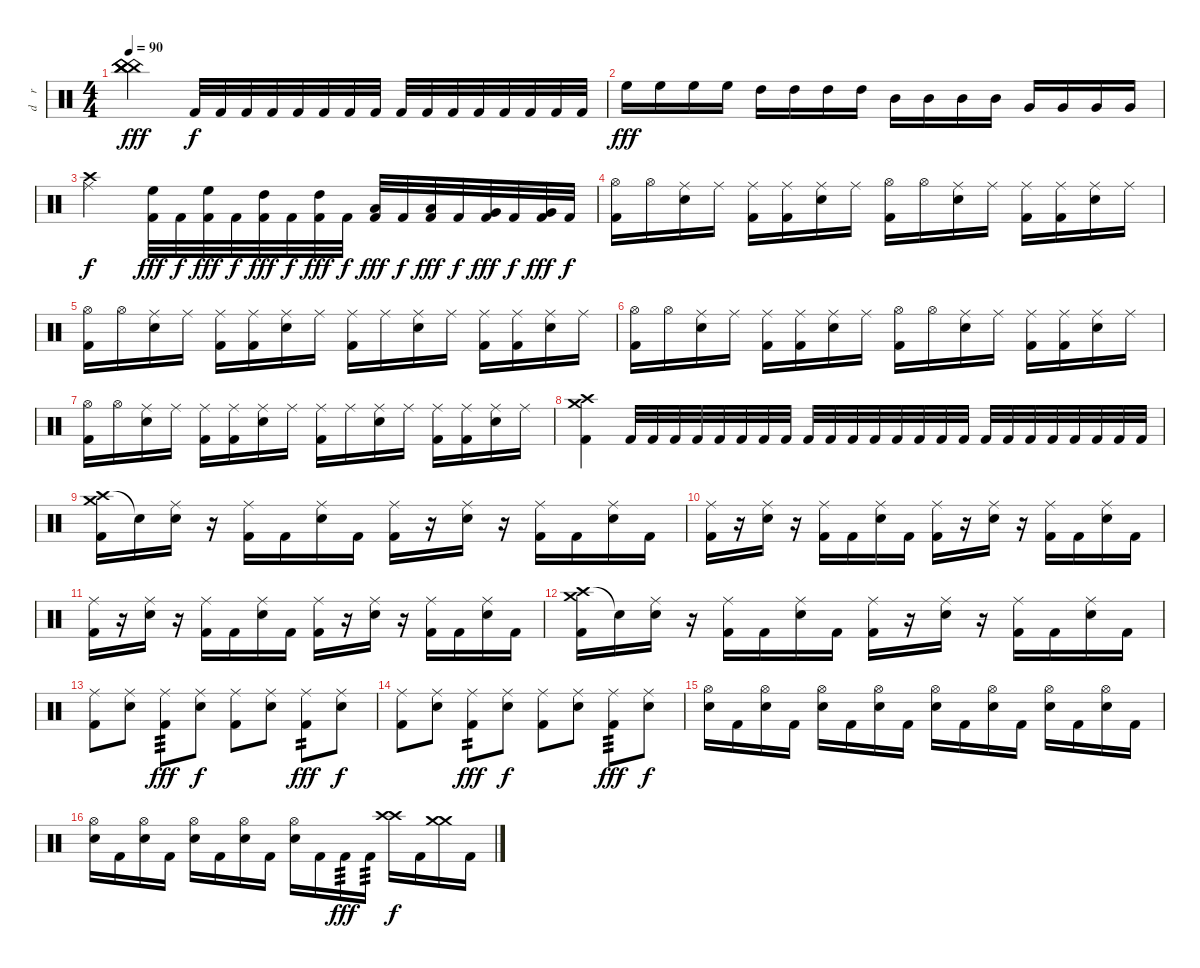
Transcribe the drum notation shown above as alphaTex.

\track ("d    r     u    m    s" "d    r    ") {instrument percussion}
\staff {score}
\articulation defaults
\ts (4 4)
\tempo 90
\clef neutral
\ks c
("China (hit)" "China (hit)" "China (hit)" "China (hit)").2{dy fff} "Kick (hit) 2".32{dy f} "Kick (hit) 2".32 "Kick (hit) 2".32 "Kick (hit) 2".32 "Kick (hit) 2".32 "Kick (hit) 2".32 "Kick (hit) 2".32 "Kick (hit) 2".32 "Kick (hit) 2".32 "Kick (hit) 2".32 "Kick (hit) 2".32 "Kick (hit) 2".32 "Kick (hit) 2".32 "Kick (hit) 2".32 "Kick (hit) 2".32 "Kick (hit) 2".32 |
"High Floor Tom (hit)".16{dy fff} "High Floor Tom (hit)".16 "High Floor Tom (hit)".16 "High Floor Tom (hit)".16 "High Tom (hit)".16 "High Tom (hit)".16 "High Tom (hit)".16 "High Tom (hit)".16 "Mid Tom (hit)".16 "Mid Tom (hit)".16 "Mid Tom (hit)".16 "Mid Tom (hit)".16 "Very Low Tom (hit)".16 "Very Low Tom (hit)".16 "Very Low Tom (hit)".16 "Very Low Tom (hit)".16 |
("Crash high (hit)" "Ride (middle)").2{dy f} ("High Floor Tom (hit)" "Kick (hit) 2").32{dy fff} "Kick (hit) 2".32{dy f} ("High Floor Tom (hit)" "Kick (hit) 2").32{dy fff} "Kick (hit) 2".32{dy f} ("High Tom (hit)" "Kick (hit) 2").32{dy fff} "Kick (hit) 2".32{dy f} ("High Tom (hit)" "Kick (hit) 2").32{dy fff} "Kick (hit) 2".32{dy f} ("Low Tom (hit)" "Kick (hit) 2").32{dy fff} "Kick (hit) 2".32{dy f} ("Low Tom (hit)" "Kick (hit) 2").32{dy fff} "Kick (hit) 2".32{dy f} ("Very Low Tom (hit)" "Kick (hit) 2").32{dy fff} "Kick (hit) 2".32{dy f} ("Very Low Tom (hit)" "Kick (hit) 2").32{dy fff} "Kick (hit) 2".32{dy f} |
("Hi-Hat (open)" "Kick (hit) 2").16 "Hi-Hat (open)".16 ("Ride (middle)" "Electric Snare (hit)").16 "Ride (middle)".16 ("Ride (middle)" "Kick (hit) 2").16 ("Ride (middle)" "Kick (hit) 2").16 ("Ride (middle)" "Electric Snare (hit)").16 "Ride (middle)".16 ("Hi-Hat (open)" "Kick (hit) 2").16 "Hi-Hat (open)".16 ("Ride (middle)" "Electric Snare (hit)").16 "Ride (middle)".16 ("Ride (middle)" "Kick (hit) 2").16 ("Ride (middle)" "Kick (hit) 2").16 ("Ride (middle)" "Electric Snare (hit)").16 "Ride (middle)".16 |
("Hi-Hat (open)" "Kick (hit) 2").16 "Hi-Hat (open)".16 ("Ride (middle)" "Electric Snare (hit)").16 "Ride (middle)".16 ("Ride (middle)" "Kick (hit) 2").16 ("Ride (middle)" "Kick (hit) 2").16 ("Ride (middle)" "Electric Snare (hit)").16 "Ride (middle)".16 ("Ride (middle)" "Kick (hit) 2").16 "Ride (middle)".16 ("Ride (middle)" "Electric Snare (hit)").16 "Ride (middle)".16 ("Ride (middle)" "Kick (hit) 2").16 ("Ride (middle)" "Kick (hit) 2").16 ("Ride (middle)" "Electric Snare (hit)").16 "Ride (middle)".16 |
("Hi-Hat (open)" "Kick (hit) 2").16 "Hi-Hat (open)".16 ("Ride (middle)" "Electric Snare (hit)").16 "Ride (middle)".16 ("Ride (middle)" "Kick (hit) 2").16 ("Ride (middle)" "Kick (hit) 2").16 ("Ride (middle)" "Electric Snare (hit)").16 "Ride (middle)".16 ("Hi-Hat (open)" "Kick (hit) 2").16 "Hi-Hat (open)".16 ("Ride (middle)" "Electric Snare (hit)").16 "Ride (middle)".16 ("Ride (middle)" "Kick (hit) 2").16 ("Ride (middle)" "Kick (hit) 2").16 ("Ride (middle)" "Electric Snare (hit)").16 "Ride (middle)".16 |
("Hi-Hat (open)" "Kick (hit) 2").16 "Hi-Hat (open)".16 ("Ride (middle)" "Electric Snare (hit)").16 "Ride (middle)".16 ("Ride (middle)" "Kick (hit) 2").16 ("Ride (middle)" "Kick (hit) 2").16 ("Ride (middle)" "Electric Snare (hit)").16 "Ride (middle)".16 ("Ride (middle)" "Kick (hit) 2").16 "Ride (middle)".16 ("Ride (middle)" "Electric Snare (hit)").16 "Ride (middle)".16 ("Ride (middle)" "Kick (hit) 2").16 ("Ride (middle)" "Kick (hit) 2").16 ("Ride (middle)" "Electric Snare (hit)").16 "Ride (middle)".16 |
("Crash high (hit)" "Crash medium (hit)" "Kick (hit) 2").4 "Kick (hit) 2".32 "Kick (hit) 2".32 "Kick (hit) 2".32 "Kick (hit) 2".32 "Kick (hit) 2".32 "Kick (hit) 2".32 "Kick (hit) 2".32 "Kick (hit) 2".32 "Kick (hit) 2".32 "Kick (hit) 2".32 "Kick (hit) 2".32 "Kick (hit) 2".32 "Kick (hit) 2".32 "Kick (hit) 2".32 "Kick (hit) 2".32 "Kick (hit) 2".32 "Kick (hit) 2".32 "Kick (hit) 2".32 "Kick (hit) 2".32 "Kick (hit) 2".32 "Kick (hit) 2".32 "Kick (hit) 2".32 "Kick (hit) 2".32 "Kick (hit) 2".32 |
("Crash high (hit)" "Crash medium (hit)" "Kick (hit) 2").16 "Snare (hit)"{t}.16 ("Ride (middle)" "Electric Snare (hit)").16 r.16 ("Ride (middle)" "Kick (hit) 2").16 "Kick (hit) 2".16 ("Ride (middle)" "Electric Snare (hit)").16 "Kick (hit) 2".16 ("Ride (middle)" "Kick (hit) 2").16 r.16 ("Ride (middle)" "Electric Snare (hit)").16 r.16 ("Ride (middle)" "Kick (hit) 2").16 "Kick (hit) 2".16 ("Ride (middle)" "Electric Snare (hit)").16 "Kick (hit) 2".16 |
("Ride (middle)" "Kick (hit) 2").16 r.16 ("Ride (middle)" "Electric Snare (hit)").16 r.16 ("Ride (middle)" "Kick (hit) 2").16 "Kick (hit) 2".16 ("Ride (middle)" "Electric Snare (hit)").16 "Kick (hit) 2".16 ("Ride (middle)" "Kick (hit) 2").16 r.16 ("Ride (middle)" "Electric Snare (hit)").16 r.16 ("Ride (middle)" "Kick (hit) 2").16 "Kick (hit) 2".16 ("Ride (middle)" "Electric Snare (hit)").16 "Kick (hit) 2".16 |
("Ride (middle)" "Kick (hit) 2").16 r.16 ("Ride (middle)" "Electric Snare (hit)").16 r.16 ("Ride (middle)" "Kick (hit) 2").16 "Kick (hit) 2".16 ("Ride (middle)" "Electric Snare (hit)").16 "Kick (hit) 2".16 ("Ride (middle)" "Kick (hit) 2").16 r.16 ("Ride (middle)" "Electric Snare (hit)").16 r.16 ("Ride (middle)" "Kick (hit) 2").16 "Kick (hit) 2".16 ("Ride (middle)" "Electric Snare (hit)").16 "Kick (hit) 2".16 |
("Crash high (hit)" "Crash medium (hit)" "Kick (hit) 2").16 "Snare (hit)"{t}.16 ("Ride (middle)" "Electric Snare (hit)").16 r.16 ("Ride (middle)" "Kick (hit) 2").16 "Kick (hit) 2".16 ("Ride (middle)" "Electric Snare (hit)").16 "Kick (hit) 2".16 ("Ride (middle)" "Kick (hit) 2").16 r.16 ("Ride (middle)" "Electric Snare (hit)").16 r.16 ("Ride (middle)" "Kick (hit) 2").16 "Kick (hit) 2".16 ("Ride (middle)" "Electric Snare (hit)").16 "Kick (hit) 2".16 |
("Ride (middle)" "Kick (hit) 2").8 ("Ride (middle)" "Electric Snare (hit)").8 ("Ride (middle)" "Kick (hit) 2").8{tp 3 dy fff} ("Ride (middle)" "Electric Snare (hit)").8{dy f} ("Ride (middle)" "Kick (hit) 2").8 ("Ride (middle)" "Electric Snare (hit)").8 ("Ride (middle)" "Kick (hit) 2").8{tp 2 dy fff} ("Ride (middle)" "Electric Snare (hit)").8{dy f} |
("Ride (middle)" "Kick (hit) 2").8 ("Ride (middle)" "Electric Snare (hit)").8 ("Ride (middle)" "Kick (hit) 2").8{tp 2 dy fff} ("Ride (middle)" "Electric Snare (hit)").8{dy f} ("Ride (middle)" "Kick (hit) 2").8 ("Ride (middle)" "Electric Snare (hit)").8 ("Ride (middle)" "Kick (hit) 2").8{tp 3 dy fff} ("Ride (middle)" "Electric Snare (hit)").8{dy f} |
("Hi-Hat (open)" "Electric Snare (hit)").16 "Kick (hit) 2".16 ("Hi-Hat (open)" "Electric Snare (hit)").16 "Kick (hit) 2".16 ("Hi-Hat (open)" "Electric Snare (hit)").16 "Kick (hit) 2".16 ("Hi-Hat (open)" "Electric Snare (hit)").16 "Kick (hit) 2".16 ("Hi-Hat (open)" "Electric Snare (hit)").16 "Kick (hit) 2".16 ("Hi-Hat (open)" "Electric Snare (hit)").16 "Kick (hit) 2".16 ("Hi-Hat (open)" "Electric Snare (hit)").16 "Kick (hit) 2".16 ("Hi-Hat (open)" "Electric Snare (hit)").16 "Kick (hit) 2".16 |
("Hi-Hat (open)" "Electric Snare (hit)").16 "Kick (hit) 2".16 ("Hi-Hat (open)" "Electric Snare (hit)").16 "Kick (hit) 2".16 ("Hi-Hat (open)" "Electric Snare (hit)").16 "Kick (hit) 2".16 ("Hi-Hat (open)" "Electric Snare (hit)").16 "Kick (hit) 2".16 ("Hi-Hat (open)" "Electric Snare (hit)").16 "Kick (hit) 2".16 "Kick (hit) 2".16{tp 3 dy fff} "Kick (hit) 2".16{tp 3} ("Crash high (hit)" "Crash high (hit)").16{dy f} "Kick (hit) 2".16 ("Crash medium (hit)" "Crash medium (hit)").16 "Kick (hit) 2".16
